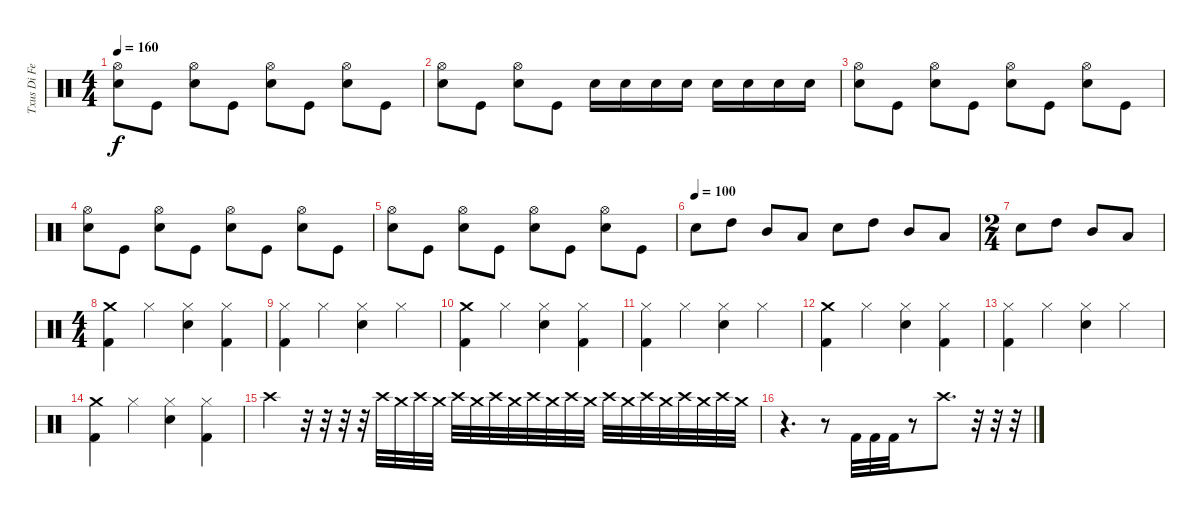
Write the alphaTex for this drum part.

\track ("Txus Di Fellatio" "Txus Di Fe") {instrument percussion}
\staff {score}
\articulation defaults
\ts (4 4)
\tempo 160
\clef neutral
\ks c
("Hi-Hat (open)" "Snare (hit) 2").8{dy f} "Kick (hit)".8 ("Hi-Hat (open)" "Snare (hit) 2").8 "Kick (hit)".8 ("Hi-Hat (open)" "Snare (hit) 2").8 "Kick (hit)".8 ("Hi-Hat (open)" "Snare (hit) 2").8 "Kick (hit)".8 |
("Hi-Hat (open)" "Snare (hit) 2").8 "Kick (hit)".8 ("Hi-Hat (open)" "Snare (hit) 2").8 "Kick (hit)".8 "Snare (hit) 2".16 "Snare (hit) 2".16 "Snare (hit) 2".16 "Snare (hit) 2".16 "Snare (hit) 2".16 "Snare (hit) 2".16 "Snare (hit) 2".16 "Snare (hit) 2".16 |
("Hi-Hat (open)" "Snare (hit) 2").8 "Kick (hit)".8 ("Hi-Hat (open)" "Snare (hit) 2").8 "Kick (hit)".8 ("Hi-Hat (open)" "Snare (hit) 2").8 "Kick (hit)".8 ("Hi-Hat (open)" "Snare (hit) 2").8 "Kick (hit)".8 |
("Hi-Hat (open)" "Snare (hit) 2").8 "Kick (hit)".8 ("Hi-Hat (open)" "Snare (hit) 2").8 "Kick (hit)".8 ("Hi-Hat (open)" "Snare (hit) 2").8 "Kick (hit)".8 ("Hi-Hat (open)" "Snare (hit) 2").8 "Kick (hit)".8 |
("Hi-Hat (open)" "Snare (hit) 2").8 "Kick (hit)".8 ("Hi-Hat (open)" "Snare (hit) 2").8 "Kick (hit)".8 ("Hi-Hat (open)" "Snare (hit) 2").8 "Kick (hit)".8 ("Hi-Hat (open)" "Snare (hit) 2").8 "Kick (hit)".8 |
\tempo (100)
"Snare (hit) 2".8 "High Tom (hit)".8 "Mid Tom (hit)".8 "Low Tom (hit)".8 "Snare (hit) 2".8 "High Tom (hit)".8 "Mid Tom (hit)".8 "Low Tom (hit)".8 |
\ts (2 4)
"Snare (hit) 2".8 "High Tom (hit)".8 "Mid Tom (hit)".8 "Low Tom (hit)".8 |
\ts (4 4)
("Crash medium (hit)" "Kick (hit) 2").4 "Hi-Hat (closed)".4 ("Hi-Hat (closed)" "Snare (hit) 2").4 ("Hi-Hat (closed)" "Kick (hit) 2").4 |
("Hi-Hat (closed)" "Kick (hit) 2").4 "Hi-Hat (closed)".4 ("Hi-Hat (closed)" "Snare (hit) 2").4 "Hi-Hat (closed)".4 |
("Crash medium (hit)" "Kick (hit) 2").4 "Hi-Hat (closed)".4 ("Hi-Hat (closed)" "Snare (hit) 2").4 ("Hi-Hat (closed)" "Kick (hit) 2").4 |
("Hi-Hat (closed)" "Kick (hit) 2").4 "Hi-Hat (closed)".4 ("Hi-Hat (closed)" "Snare (hit) 2").4 "Hi-Hat (closed)".4 |
("Crash medium (hit)" "Kick (hit) 2").4 "Hi-Hat (closed)".4 ("Hi-Hat (closed)" "Snare (hit) 2").4 ("Hi-Hat (closed)" "Kick (hit) 2").4 |
("Hi-Hat (closed)" "Kick (hit) 2").4 "Hi-Hat (closed)".4 ("Hi-Hat (closed)" "Snare (hit) 2").4 "Hi-Hat (closed)".4 |
("Crash medium (hit)" "Kick (hit) 2").4 "Hi-Hat (closed)".4 ("Hi-Hat (closed)" "Snare (hit) 2").4 ("Hi-Hat (closed)" "Kick (hit) 2").4 |
"Crash high (hit)".4 r.32 r.32 r.32{volume 0} r.32 "Crash high (hit)".32{volume 12} "Crash medium (hit)".32 "Crash high (hit)".32 "Crash medium (hit)".32 "Crash high (hit)".32 "Crash medium (hit)".32 "Crash high (hit)".32 "Crash medium (hit)".32 "Crash high (hit)".32 "Crash medium (hit)".32 "Crash high (hit)".32 "Crash medium (hit)".32 "Crash high (hit)".32 "Crash medium (hit)".32 "Crash high (hit)".32 "Crash medium (hit)".32 "Crash high (hit)".32 "Crash medium (hit)".32 "Crash high (hit)".32 "Crash medium (hit)".32 |
r.4{d} r.8 "Kick (hit) 2".32 "Kick (hit) 2".32 "Kick (hit) 2".32 r.8 "Crash high (hit)".8{d} r.32 r.32 r.32
